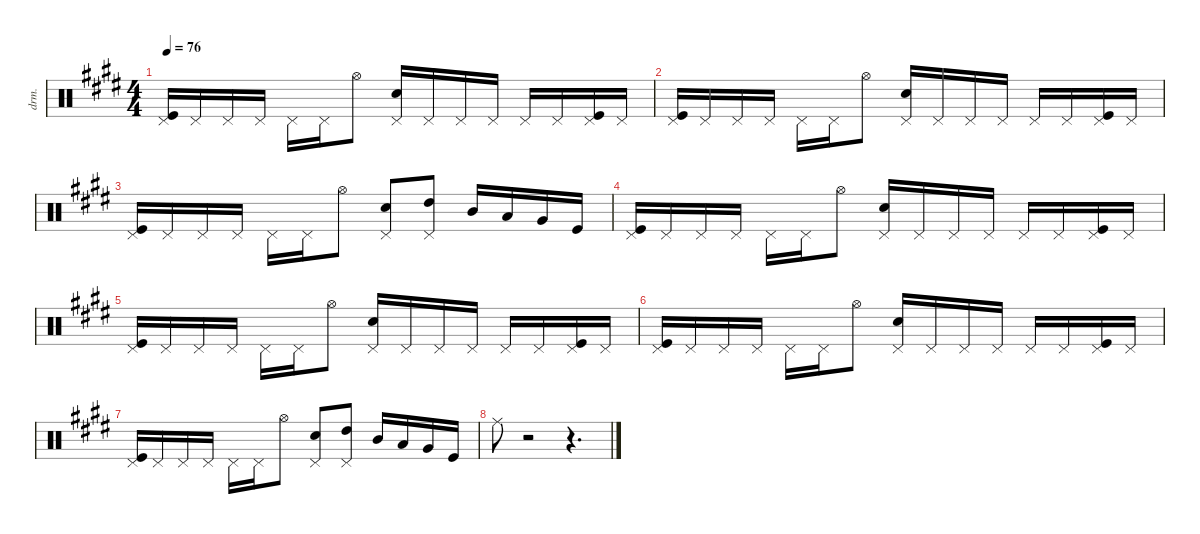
\defaultSystemsLayout 4
\hideDynamics
\bracketExtendMode nobrackets
\otherSystemsTrackNameOrientation horizontal
\track ("Drums" "drm.") {instrument percussion}
\staff {score}
\articulation defaults
\ts (4 4)
\tempo 76
\clef neutral
\ks c#minor
("Pedal Hi-Hat (hit)"{acc forcenatural} "Kick (hit)"{acc forcenatural}).16{dy f} "Pedal Hi-Hat (hit)"{acc forcenatural}.16 "Pedal Hi-Hat (hit)"{acc forcenatural}.16 "Pedal Hi-Hat (hit)"{acc forcenatural}.16 "Pedal Hi-Hat (hit)"{acc forcenatural}.16 "Pedal Hi-Hat (hit)"{acc forcenatural}.16 "Hi-Hat (open)"{acc forcenatural}.8 ("Snare (hit) 2"{acc forcenatural} "Pedal Hi-Hat (hit)"{acc forcenatural}).16 "Pedal Hi-Hat (hit)"{acc forcenatural}.16 "Pedal Hi-Hat (hit)"{acc forcenatural}.16 "Pedal Hi-Hat (hit)"{acc forcenatural}.16 "Pedal Hi-Hat (hit)"{acc forcenatural}.16 "Pedal Hi-Hat (hit)"{acc forcenatural}.16 ("Pedal Hi-Hat (hit)"{acc forcenatural} "Kick (hit)"{acc forcenatural}).16 "Pedal Hi-Hat (hit)"{acc forcenatural}.16 |
("Pedal Hi-Hat (hit)"{acc forcenatural} "Kick (hit)"{acc forcenatural}).16 "Pedal Hi-Hat (hit)"{acc forcenatural}.16 "Pedal Hi-Hat (hit)"{acc forcenatural}.16 "Pedal Hi-Hat (hit)"{acc forcenatural}.16 "Pedal Hi-Hat (hit)"{acc forcenatural}.16 "Pedal Hi-Hat (hit)"{acc forcenatural}.16 "Hi-Hat (open)"{acc forcenatural}.8 ("Snare (hit) 2"{acc forcenatural} "Pedal Hi-Hat (hit)"{acc forcenatural}).16 "Pedal Hi-Hat (hit)"{acc forcenatural}.16 "Pedal Hi-Hat (hit)"{acc forcenatural}.16 "Pedal Hi-Hat (hit)"{acc forcenatural}.16 "Pedal Hi-Hat (hit)"{acc forcenatural}.16 "Pedal Hi-Hat (hit)"{acc forcenatural}.16 ("Pedal Hi-Hat (hit)"{acc forcenatural} "Kick (hit)"{acc forcenatural}).16 "Pedal Hi-Hat (hit)"{acc forcenatural}.16 |
("Pedal Hi-Hat (hit)"{acc forcenatural} "Kick (hit)"{acc forcenatural}).16 "Pedal Hi-Hat (hit)"{acc forcenatural}.16 "Pedal Hi-Hat (hit)"{acc forcenatural}.16 "Pedal Hi-Hat (hit)"{acc forcenatural}.16 "Pedal Hi-Hat (hit)"{acc forcenatural}.16 "Pedal Hi-Hat (hit)"{acc forcenatural}.16 "Hi-Hat (open)"{acc forcenatural}.8 ("Snare (hit) 2"{acc forcenatural} "Pedal Hi-Hat (hit)"{acc forcenatural}).8 ("High Tom (hit)"{acc forcenatural} "Pedal Hi-Hat (hit)"{acc forcenatural}).8 "Mid Tom (hit)"{acc forcenatural}.16 "Low Tom (hit)"{acc forcenatural}.16 "Very Low Tom (hit)"{acc forcenatural}.16 "Kick (hit)"{acc forcenatural}.16 |
("Pedal Hi-Hat (hit)"{acc forcenatural} "Kick (hit)"{acc forcenatural}).16 "Pedal Hi-Hat (hit)"{acc forcenatural}.16 "Pedal Hi-Hat (hit)"{acc forcenatural}.16 "Pedal Hi-Hat (hit)"{acc forcenatural}.16 "Pedal Hi-Hat (hit)"{acc forcenatural}.16 "Pedal Hi-Hat (hit)"{acc forcenatural}.16 "Hi-Hat (open)"{acc forcenatural}.8 ("Snare (hit) 2"{acc forcenatural} "Pedal Hi-Hat (hit)"{acc forcenatural}).16 "Pedal Hi-Hat (hit)"{acc forcenatural}.16 "Pedal Hi-Hat (hit)"{acc forcenatural}.16 "Pedal Hi-Hat (hit)"{acc forcenatural}.16 "Pedal Hi-Hat (hit)"{acc forcenatural}.16 "Pedal Hi-Hat (hit)"{acc forcenatural}.16 ("Pedal Hi-Hat (hit)"{acc forcenatural} "Kick (hit)"{acc forcenatural}).16 "Pedal Hi-Hat (hit)"{acc forcenatural}.16 |
("Pedal Hi-Hat (hit)"{acc forcenatural} "Kick (hit)"{acc forcenatural}).16 "Pedal Hi-Hat (hit)"{acc forcenatural}.16 "Pedal Hi-Hat (hit)"{acc forcenatural}.16 "Pedal Hi-Hat (hit)"{acc forcenatural}.16 "Pedal Hi-Hat (hit)"{acc forcenatural}.16 "Pedal Hi-Hat (hit)"{acc forcenatural}.16 "Hi-Hat (open)"{acc forcenatural}.8 ("Snare (hit) 2"{acc forcenatural} "Pedal Hi-Hat (hit)"{acc forcenatural}).16 "Pedal Hi-Hat (hit)"{acc forcenatural}.16 "Pedal Hi-Hat (hit)"{acc forcenatural}.16 "Pedal Hi-Hat (hit)"{acc forcenatural}.16 "Pedal Hi-Hat (hit)"{acc forcenatural}.16 "Pedal Hi-Hat (hit)"{acc forcenatural}.16 ("Pedal Hi-Hat (hit)"{acc forcenatural} "Kick (hit)"{acc forcenatural}).16 "Pedal Hi-Hat (hit)"{acc forcenatural}.16 |
("Pedal Hi-Hat (hit)"{acc forcenatural} "Kick (hit)"{acc forcenatural}).16 "Pedal Hi-Hat (hit)"{acc forcenatural}.16 "Pedal Hi-Hat (hit)"{acc forcenatural}.16 "Pedal Hi-Hat (hit)"{acc forcenatural}.16 "Pedal Hi-Hat (hit)"{acc forcenatural}.16 "Pedal Hi-Hat (hit)"{acc forcenatural}.16 "Hi-Hat (open)"{acc forcenatural}.8 ("Snare (hit) 2"{acc forcenatural} "Pedal Hi-Hat (hit)"{acc forcenatural}).16 "Pedal Hi-Hat (hit)"{acc forcenatural}.16 "Pedal Hi-Hat (hit)"{acc forcenatural}.16 "Pedal Hi-Hat (hit)"{acc forcenatural}.16 "Pedal Hi-Hat (hit)"{acc forcenatural}.16 "Pedal Hi-Hat (hit)"{acc forcenatural}.16 ("Pedal Hi-Hat (hit)"{acc forcenatural} "Kick (hit)"{acc forcenatural}).16 "Pedal Hi-Hat (hit)"{acc forcenatural}.16 |
("Pedal Hi-Hat (hit)"{acc forcenatural} "Kick (hit)"{acc forcenatural}).16 "Pedal Hi-Hat (hit)"{acc forcenatural}.16 "Pedal Hi-Hat (hit)"{acc forcenatural}.16 "Pedal Hi-Hat (hit)"{acc forcenatural}.16 "Pedal Hi-Hat (hit)"{acc forcenatural}.16 "Pedal Hi-Hat (hit)"{acc forcenatural}.16 "Hi-Hat (open)"{acc forcenatural}.8 ("Snare (hit) 2"{acc forcenatural} "Pedal Hi-Hat (hit)"{acc forcenatural}).8 ("High Tom (hit)"{acc forcenatural} "Pedal Hi-Hat (hit)"{acc forcenatural}).8 "Mid Tom (hit)"{acc forcenatural}.16 "Low Tom (hit)"{acc forcenatural}.16 "Very Low Tom (hit)"{acc forcenatural}.16 "Kick (hit)"{acc forcenatural}.16 |
"Ride (middle)"{acc forcenatural}.8 r.2 r.4{d}
